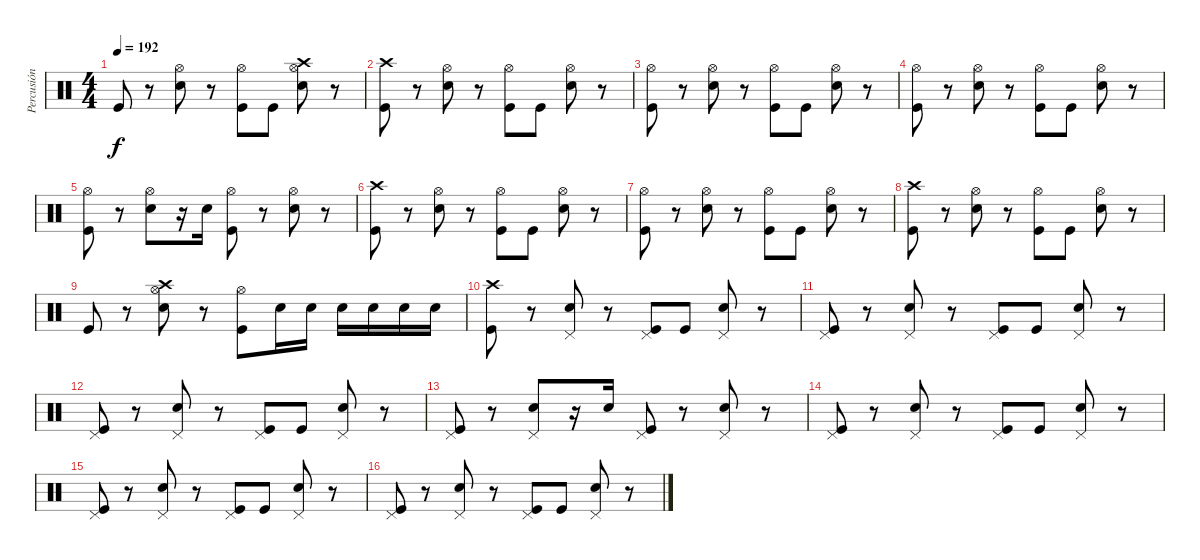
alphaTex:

\track ("Percusión" "Percusión") {instrument percussion}
\staff {score}
\articulation defaults
\ts (4 4)
\tempo 192
\clef neutral
\ks c "Kick (hit)".8{dy f}
r.8 ("Electric Snare (hit)" "Hi-Hat (open)").8 r.8 ("Kick (hit)" "Hi-Hat (open)").8 "Kick (hit)".8 ("Electric Snare (hit)" "Hi-Hat (open)" "Crash high (hit)").8 r.8 |
("Kick (hit)" "Crash high (hit)").8 r.8 ("Electric Snare (hit)" "Hi-Hat (open)").8 r.8 ("Kick (hit)" "Hi-Hat (open)").8 "Kick (hit)".8 ("Electric Snare (hit)" "Hi-Hat (open)").8 r.8 |
("Kick (hit)" "Hi-Hat (open)").8 r.8 ("Electric Snare (hit)" "Hi-Hat (open)").8 r.8 ("Kick (hit)" "Hi-Hat (open)").8 "Kick (hit)".8 ("Electric Snare (hit)" "Hi-Hat (open)").8 r.8 |
("Kick (hit)" "Hi-Hat (open)").8 r.8 ("Electric Snare (hit)" "Hi-Hat (open)").8 r.8 ("Kick (hit)" "Hi-Hat (open)").8 "Kick (hit)".8 ("Electric Snare (hit)" "Hi-Hat (open)").8 r.8 |
("Kick (hit)" "Hi-Hat (open)").8 r.8 ("Electric Snare (hit)" "Hi-Hat (open)").8 r.16 "Electric Snare (hit)".16 ("Kick (hit)" "Hi-Hat (open)").8 r.8 ("Electric Snare (hit)" "Hi-Hat (open)").8 r.8 |
("Kick (hit)" "Crash high (hit)").8 r.8 ("Electric Snare (hit)" "Hi-Hat (open)").8 r.8 ("Kick (hit)" "Hi-Hat (open)").8 "Kick (hit)".8 ("Electric Snare (hit)" "Hi-Hat (open)").8 r.8 |
("Kick (hit)" "Hi-Hat (open)").8 r.8 ("Electric Snare (hit)" "Hi-Hat (open)").8 r.8 ("Kick (hit)" "Hi-Hat (open)").8 "Kick (hit)".8 ("Electric Snare (hit)" "Hi-Hat (open)").8 r.8 |
("Kick (hit)" "Crash high (hit)").8 r.8 ("Electric Snare (hit)" "Hi-Hat (open)").8 r.8 ("Kick (hit)" "Hi-Hat (open)").8 "Kick (hit)".8 ("Electric Snare (hit)" "Hi-Hat (open)").8 r.8 |
"Kick (hit)".8 r.8 ("Electric Snare (hit)" "Hi-Hat (open)" "Crash high (hit)").8 r.8 ("Kick (hit)" "Hi-Hat (open)").8 "Electric Snare (hit)".16 "Electric Snare (hit)".16 "Electric Snare (hit)".16 "Electric Snare (hit)".16 "Electric Snare (hit)".16 "Electric Snare (hit)".16 |
("Kick (hit)" "Crash high (hit)").8 r.8 ("Electric Snare (hit)" "Pedal Hi-Hat (hit)").8 r.8 ("Kick (hit)" "Pedal Hi-Hat (hit)").8 "Kick (hit)".8 ("Electric Snare (hit)" "Pedal Hi-Hat (hit)").8 r.8 |
("Kick (hit)" "Pedal Hi-Hat (hit)").8 r.8 ("Electric Snare (hit)" "Pedal Hi-Hat (hit)").8 r.8 ("Kick (hit)" "Pedal Hi-Hat (hit)").8 "Kick (hit)".8 ("Electric Snare (hit)" "Pedal Hi-Hat (hit)").8 r.8 |
("Kick (hit)" "Pedal Hi-Hat (hit)").8 r.8 ("Electric Snare (hit)" "Pedal Hi-Hat (hit)").8 r.8 ("Kick (hit)" "Pedal Hi-Hat (hit)").8 "Kick (hit)".8 ("Electric Snare (hit)" "Pedal Hi-Hat (hit)").8 r.8 |
("Kick (hit)" "Pedal Hi-Hat (hit)").8 r.8 ("Electric Snare (hit)" "Pedal Hi-Hat (hit)").8 r.16 "Electric Snare (hit)".16 ("Kick (hit)" "Pedal Hi-Hat (hit)").8 r.8 ("Electric Snare (hit)" "Pedal Hi-Hat (hit)").8 r.8 |
("Kick (hit)" "Pedal Hi-Hat (hit)").8 r.8 ("Electric Snare (hit)" "Pedal Hi-Hat (hit)").8 r.8 ("Kick (hit)" "Pedal Hi-Hat (hit)").8 "Kick (hit)".8 ("Electric Snare (hit)" "Pedal Hi-Hat (hit)").8 r.8 |
("Kick (hit)" "Pedal Hi-Hat (hit)").8 r.8 ("Electric Snare (hit)" "Pedal Hi-Hat (hit)").8 r.8 ("Kick (hit)" "Pedal Hi-Hat (hit)").8 "Kick (hit)".8 ("Electric Snare (hit)" "Pedal Hi-Hat (hit)").8 r.8 |
("Kick (hit)" "Pedal Hi-Hat (hit)").8 r.8 ("Electric Snare (hit)" "Pedal Hi-Hat (hit)").8 r.8 ("Kick (hit)" "Pedal Hi-Hat (hit)").8 "Kick (hit)".8 ("Electric Snare (hit)" "Pedal Hi-Hat (hit)").8 r.8
